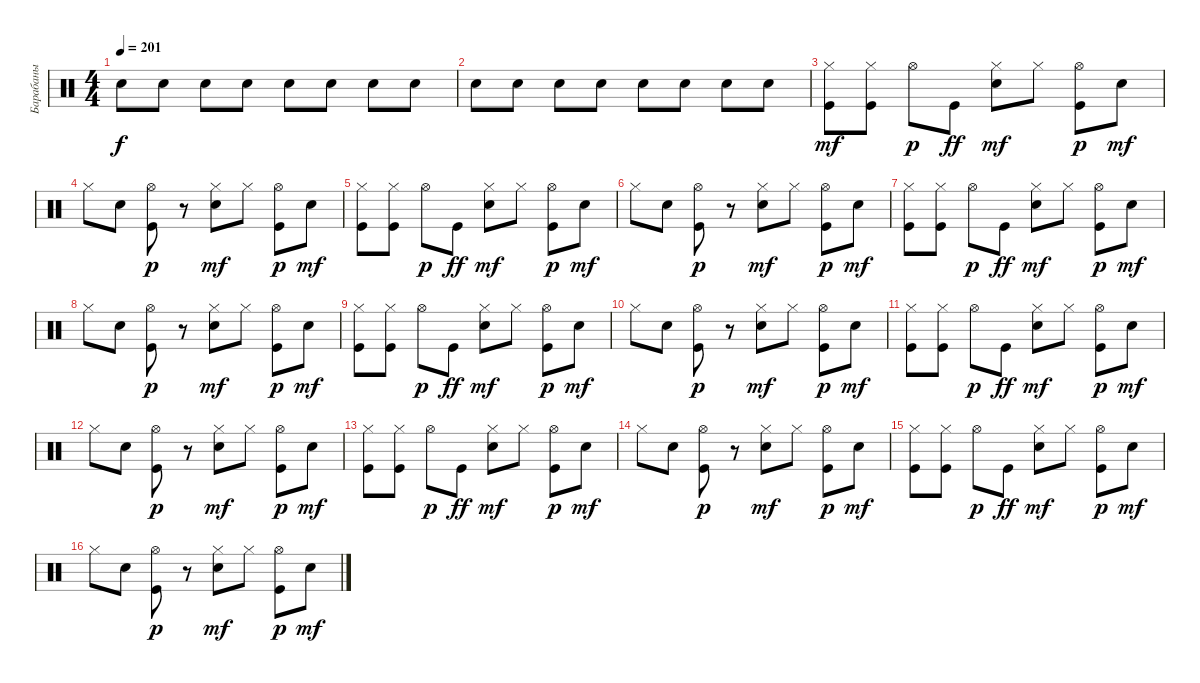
\track ("Барабаны" "Барабаны") {instrument percussion}
\staff {score}
\articulation defaults
\ts (4 4)
\tempo 201
\clef neutral
\ks c "Snare (hit) 2".8{dy f volume 13} "Snare (hit) 2".8 "Snare (hit) 2".8 "Snare (hit) 2".8 "Snare (hit) 2".8 "Snare (hit) 2".8 "Snare (hit) 2".8 "Snare (hit) 2".8
|
"Snare (hit) 2".8 "Snare (hit) 2".8 "Snare (hit) 2".8 "Snare (hit) 2".8 "Snare (hit) 2".8 "Snare (hit) 2".8 "Snare (hit) 2".8 "Snare (hit) 2".8 |
("Kick (hit)" "Hi-Hat (closed)").8{dy mf} ("Kick (hit)" "Hi-Hat (closed)").8 "Hi-Hat (open)".8{dy p} "Kick (hit)".8{dy ff} ("Snare (hit) 2" "Hi-Hat (closed)").8{dy mf} "Hi-Hat (closed)".8 ("Kick (hit)" "Hi-Hat (open)").8{dy p} "Snare (hit) 2".8{dy mf} |
"Hi-Hat (closed)".8 "Snare (hit) 2".8 ("Kick (hit)" "Hi-Hat (open)").8{dy p} r.8 ("Snare (hit) 2" "Hi-Hat (closed)").8{dy mf} "Hi-Hat (closed)".8 ("Kick (hit)" "Hi-Hat (open)").8{dy p} "Snare (hit) 2".8{dy mf} |
("Kick (hit)" "Hi-Hat (closed)").8 ("Kick (hit)" "Hi-Hat (closed)").8 "Hi-Hat (open)".8{dy p} "Kick (hit)".8{dy ff} ("Snare (hit) 2" "Hi-Hat (closed)").8{dy mf} "Hi-Hat (closed)".8 ("Kick (hit)" "Hi-Hat (open)").8{dy p} "Snare (hit) 2".8{dy mf} |
"Hi-Hat (closed)".8 "Snare (hit) 2".8 ("Kick (hit)" "Hi-Hat (open)").8{dy p} r.8 ("Snare (hit) 2" "Hi-Hat (closed)").8{dy mf} "Hi-Hat (closed)".8 ("Kick (hit)" "Hi-Hat (open)").8{dy p} "Snare (hit) 2".8{dy mf} |
("Kick (hit)" "Hi-Hat (closed)").8 ("Kick (hit)" "Hi-Hat (closed)").8 "Hi-Hat (open)".8{dy p} "Kick (hit)".8{dy ff} ("Snare (hit) 2" "Hi-Hat (closed)").8{dy mf} "Hi-Hat (closed)".8 ("Kick (hit)" "Hi-Hat (open)").8{dy p} "Snare (hit) 2".8{dy mf} |
"Hi-Hat (closed)".8 "Snare (hit) 2".8 ("Kick (hit)" "Hi-Hat (open)").8{dy p} r.8 ("Snare (hit) 2" "Hi-Hat (closed)").8{dy mf} "Hi-Hat (closed)".8 ("Kick (hit)" "Hi-Hat (open)").8{dy p} "Snare (hit) 2".8{dy mf} |
("Kick (hit)" "Hi-Hat (closed)").8 ("Kick (hit)" "Hi-Hat (closed)").8 "Hi-Hat (open)".8{dy p} "Kick (hit)".8{dy ff} ("Snare (hit) 2" "Hi-Hat (closed)").8{dy mf} "Hi-Hat (closed)".8 ("Kick (hit)" "Hi-Hat (open)").8{dy p} "Snare (hit) 2".8{dy mf} |
"Hi-Hat (closed)".8 "Snare (hit) 2".8 ("Kick (hit)" "Hi-Hat (open)").8{dy p} r.8 ("Snare (hit) 2" "Hi-Hat (closed)").8{dy mf} "Hi-Hat (closed)".8 ("Kick (hit)" "Hi-Hat (open)").8{dy p} "Snare (hit) 2".8{dy mf} |
("Kick (hit)" "Hi-Hat (closed)").8 ("Kick (hit)" "Hi-Hat (closed)").8 "Hi-Hat (open)".8{dy p} "Kick (hit)".8{dy ff} ("Snare (hit) 2" "Hi-Hat (closed)").8{dy mf} "Hi-Hat (closed)".8 ("Kick (hit)" "Hi-Hat (open)").8{dy p} "Snare (hit) 2".8{dy mf} |
"Hi-Hat (closed)".8 "Snare (hit) 2".8 ("Kick (hit)" "Hi-Hat (open)").8{dy p} r.8 ("Snare (hit) 2" "Hi-Hat (closed)").8{dy mf} "Hi-Hat (closed)".8 ("Kick (hit)" "Hi-Hat (open)").8{dy p} "Snare (hit) 2".8{dy mf} |
("Kick (hit)" "Hi-Hat (closed)").8 ("Kick (hit)" "Hi-Hat (closed)").8 "Hi-Hat (open)".8{dy p} "Kick (hit)".8{dy ff} ("Snare (hit) 2" "Hi-Hat (closed)").8{dy mf} "Hi-Hat (closed)".8 ("Kick (hit)" "Hi-Hat (open)").8{dy p} "Snare (hit) 2".8{dy mf} |
"Hi-Hat (closed)".8 "Snare (hit) 2".8 ("Kick (hit)" "Hi-Hat (open)").8{dy p} r.8 ("Snare (hit) 2" "Hi-Hat (closed)").8{dy mf} "Hi-Hat (closed)".8 ("Kick (hit)" "Hi-Hat (open)").8{dy p} "Snare (hit) 2".8{dy mf} |
("Kick (hit)" "Hi-Hat (closed)").8 ("Kick (hit)" "Hi-Hat (closed)").8 "Hi-Hat (open)".8{dy p} "Kick (hit)".8{dy ff} ("Snare (hit) 2" "Hi-Hat (closed)").8{dy mf} "Hi-Hat (closed)".8 ("Kick (hit)" "Hi-Hat (open)").8{dy p} "Snare (hit) 2".8{dy mf} |
"Hi-Hat (closed)".8 "Snare (hit) 2".8 ("Kick (hit)" "Hi-Hat (open)").8{dy p} r.8 ("Snare (hit) 2" "Hi-Hat (closed)").8{dy mf} "Hi-Hat (closed)".8 ("Kick (hit)" "Hi-Hat (open)").8{dy p} "Snare (hit) 2".8{dy mf}
